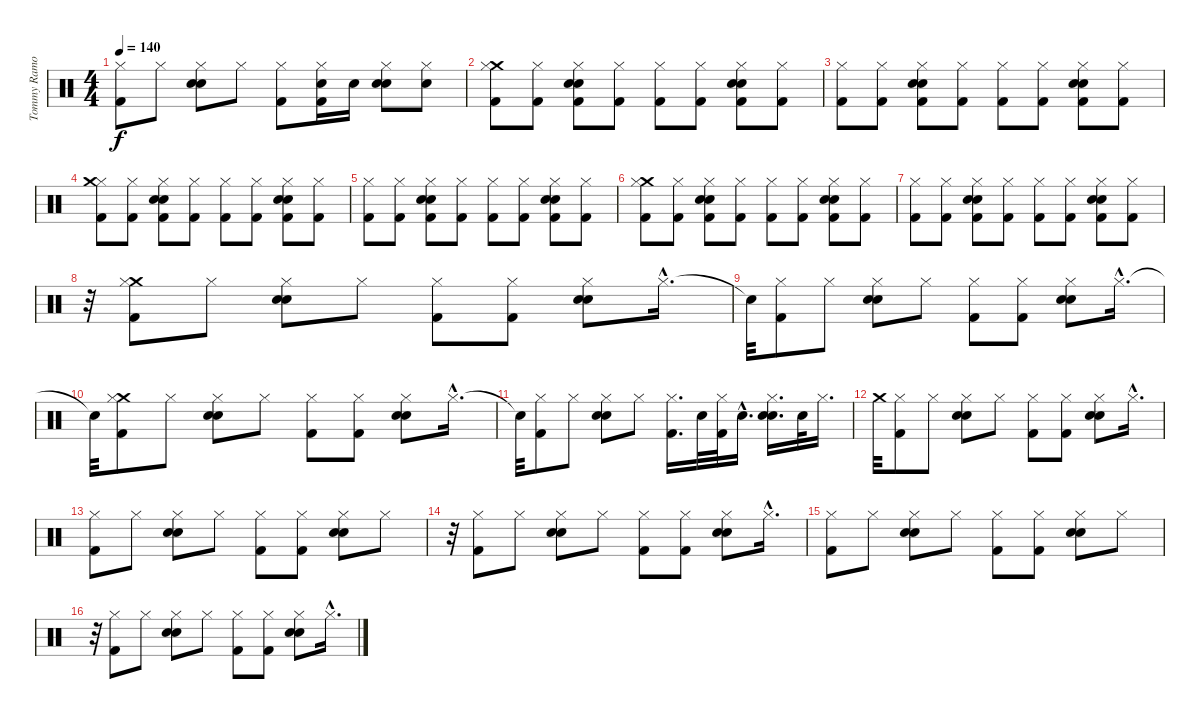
\track ("Tommy Ramone" "Tommy Ramo") {instrument percussion}
\staff {score}
\articulation defaults
\ts (4 4)
\tempo 140
\clef neutral
\ks c
("Kick (hit) 2" "Hi-Hat (closed)").8{dy f} "Hi-Hat (closed)".8 ("Electric Snare (hit)" "Snare (hit) 2" "Hi-Hat (closed)").8 "Hi-Hat (closed)".8 ("Kick (hit) 2" "Hi-Hat (closed)").8 ("Snare (hit) 2" "Kick (hit) 2" "Hi-Hat (closed)").16 "Electric Snare (hit)".16 ("Electric Snare (hit)" "Snare (hit) 2" "Hi-Hat (closed)").8 ("Electric Snare (hit)" "Hi-Hat (closed)").8 |
("Crash medium (hit)" "Hi-Hat (closed)" "Kick (hit) 2").8 ("Hi-Hat (closed)" "Kick (hit) 2").8 ("Electric Snare (hit)" "Snare (hit) 2" "Hi-Hat (closed)" "Kick (hit) 2").8 ("Hi-Hat (closed)" "Kick (hit) 2").8 ("Hi-Hat (closed)" "Kick (hit) 2").8 ("Hi-Hat (closed)" "Kick (hit) 2").8 ("Snare (hit) 2" "Electric Snare (hit)" "Hi-Hat (closed)" "Kick (hit) 2").8 ("Hi-Hat (closed)" "Kick (hit) 2").8 |
("Hi-Hat (closed)" "Kick (hit) 2").8 ("Hi-Hat (closed)" "Kick (hit) 2").8 ("Electric Snare (hit)" "Snare (hit) 2" "Hi-Hat (closed)" "Kick (hit) 2").8 ("Hi-Hat (closed)" "Kick (hit) 2").8 ("Hi-Hat (closed)" "Kick (hit) 2").8 ("Hi-Hat (closed)" "Kick (hit) 2").8 ("Snare (hit) 2" "Electric Snare (hit)" "Hi-Hat (closed)" "Kick (hit) 2").8 ("Hi-Hat (closed)" "Kick (hit) 2").8 |
("Hi-Hat (closed)" "Kick (hit) 2" "Crash medium (hit)").8 ("Hi-Hat (closed)" "Kick (hit) 2").8 ("Electric Snare (hit)" "Snare (hit) 2" "Hi-Hat (closed)" "Kick (hit) 2").8 ("Hi-Hat (closed)" "Kick (hit) 2").8 ("Hi-Hat (closed)" "Kick (hit) 2").8 ("Hi-Hat (closed)" "Kick (hit) 2").8 ("Snare (hit) 2" "Electric Snare (hit)" "Hi-Hat (closed)" "Kick (hit) 2").8 ("Hi-Hat (closed)" "Kick (hit) 2").8 |
("Hi-Hat (closed)" "Kick (hit) 2").8 ("Hi-Hat (closed)" "Kick (hit) 2").8 ("Electric Snare (hit)" "Snare (hit) 2" "Hi-Hat (closed)" "Kick (hit) 2").8 ("Hi-Hat (closed)" "Kick (hit) 2").8 ("Hi-Hat (closed)" "Kick (hit) 2").8 ("Hi-Hat (closed)" "Kick (hit) 2").8 ("Snare (hit) 2" "Electric Snare (hit)" "Hi-Hat (closed)" "Kick (hit) 2").8 ("Hi-Hat (closed)" "Kick (hit) 2").8 |
("Crash medium (hit)" "Hi-Hat (closed)" "Kick (hit) 2").8 ("Hi-Hat (closed)" "Kick (hit) 2").8 ("Electric Snare (hit)" "Snare (hit) 2" "Hi-Hat (closed)" "Kick (hit) 2").8 ("Hi-Hat (closed)" "Kick (hit) 2").8 ("Hi-Hat (closed)" "Kick (hit) 2").8 ("Hi-Hat (closed)" "Kick (hit) 2").8 ("Snare (hit) 2" "Electric Snare (hit)" "Hi-Hat (closed)" "Kick (hit) 2").8 ("Hi-Hat (closed)" "Kick (hit) 2").8 |
("Hi-Hat (closed)" "Kick (hit) 2").8 ("Hi-Hat (closed)" "Kick (hit) 2").8 ("Electric Snare (hit)" "Snare (hit) 2" "Hi-Hat (closed)" "Kick (hit) 2").8 ("Hi-Hat (closed)" "Kick (hit) 2").8 ("Hi-Hat (closed)" "Kick (hit) 2").8 ("Hi-Hat (closed)" "Kick (hit) 2").8 ("Snare (hit) 2" "Electric Snare (hit)" "Hi-Hat (closed)" "Kick (hit) 2").8 ("Hi-Hat (closed)" "Kick (hit) 2").8 |
r.32 ("Crash medium (hit)" "Kick (hit) 2" "Hi-Hat (closed)").8 "Hi-Hat (closed)".8 ("Electric Snare (hit)" "Snare (hit) 2" "Hi-Hat (closed)").8 "Hi-Hat (closed)".8 ("Kick (hit) 2" "Hi-Hat (closed)").8 ("Kick (hit) 2" "Hi-Hat (closed)").8 ("Electric Snare (hit)" "Snare (hit) 2" "Hi-Hat (closed)").8 "Hi-Hat (closed)"{hac}.16{d} |
"Snare (hit)"{t}.32 ("Kick (hit) 2" "Hi-Hat (closed)").8 "Hi-Hat (closed)".8 ("Electric Snare (hit)" "Snare (hit) 2" "Hi-Hat (closed)").8 "Hi-Hat (closed)".8 ("Kick (hit) 2" "Hi-Hat (closed)").8 ("Kick (hit) 2" "Hi-Hat (closed)").8 ("Electric Snare (hit)" "Snare (hit) 2" "Hi-Hat (closed)").8 "Hi-Hat (closed)"{hac}.16{d} |
"Snare (hit)"{t}.32 ("Crash medium (hit)" "Kick (hit) 2" "Hi-Hat (closed)").8 "Hi-Hat (closed)".8 ("Electric Snare (hit)" "Snare (hit) 2" "Hi-Hat (closed)").8 "Hi-Hat (closed)".8 ("Kick (hit) 2" "Hi-Hat (closed)").8 ("Kick (hit) 2" "Hi-Hat (closed)").8 ("Electric Snare (hit)" "Snare (hit) 2" "Hi-Hat (closed)").8 "Hi-Hat (closed)"{hac}.16{d} |
"Snare (hit)"{t}.32 ("Kick (hit) 2" "Hi-Hat (closed)").8 "Hi-Hat (closed)".8 ("Electric Snare (hit)" "Snare (hit) 2" "Hi-Hat (closed)").8 "Hi-Hat (closed)".8 ("Kick (hit) 2" "Hi-Hat (closed)").16{d} "Snare (hit) 2".32 ("Kick (hit) 2" "Hi-Hat (closed)").32 "Electric Snare (hit)"{hac}.16{d} ("Electric Snare (hit)" "Snare (hit) 2" "Hi-Hat (closed)").16{d} "Electric Snare (hit)".32 "Hi-Hat (closed)".16{d} |
"Crash medium (hit)".32 ("Kick (hit) 2" "Hi-Hat (closed)").8 "Hi-Hat (closed)".8 ("Electric Snare (hit)" "Snare (hit) 2" "Hi-Hat (closed)").8 "Hi-Hat (closed)".8 ("Kick (hit) 2" "Hi-Hat (closed)").8 ("Kick (hit) 2" "Hi-Hat (closed)").8 ("Electric Snare (hit)" "Snare (hit) 2" "Hi-Hat (closed)").8 "Hi-Hat (closed)"{hac}.16{d} |
("Kick (hit) 2" "Hi-Hat (closed)").8 "Hi-Hat (closed)".8 ("Electric Snare (hit)" "Snare (hit) 2" "Hi-Hat (closed)").8 "Hi-Hat (closed)".8 ("Kick (hit) 2" "Hi-Hat (closed)").8 ("Kick (hit) 2" "Hi-Hat (closed)").8 ("Electric Snare (hit)" "Snare (hit) 2" "Hi-Hat (closed)").8 "Hi-Hat (closed)".8 |
r.32 ("Kick (hit) 2" "Hi-Hat (closed)").8 "Hi-Hat (closed)".8 ("Electric Snare (hit)" "Snare (hit) 2" "Hi-Hat (closed)").8 "Hi-Hat (closed)".8 ("Kick (hit) 2" "Hi-Hat (closed)").8 ("Kick (hit) 2" "Hi-Hat (closed)").8 ("Electric Snare (hit)" "Snare (hit) 2" "Hi-Hat (closed)").8 "Hi-Hat (closed)"{hac}.16{d} |
("Kick (hit) 2" "Hi-Hat (closed)").8 "Hi-Hat (closed)".8 ("Electric Snare (hit)" "Snare (hit) 2" "Hi-Hat (closed)").8 "Hi-Hat (closed)".8 ("Kick (hit) 2" "Hi-Hat (closed)").8 ("Kick (hit) 2" "Hi-Hat (closed)").8 ("Electric Snare (hit)" "Snare (hit) 2" "Hi-Hat (closed)").8 "Hi-Hat (closed)".8 |
r.32 ("Kick (hit) 2" "Hi-Hat (closed)").8 "Hi-Hat (closed)".8 ("Electric Snare (hit)" "Snare (hit) 2" "Hi-Hat (closed)").8 "Hi-Hat (closed)".8 ("Kick (hit) 2" "Hi-Hat (closed)").8 ("Kick (hit) 2" "Hi-Hat (closed)").8 ("Electric Snare (hit)" "Snare (hit) 2" "Hi-Hat (closed)").8 "Hi-Hat (closed)"{hac}.16{d}
